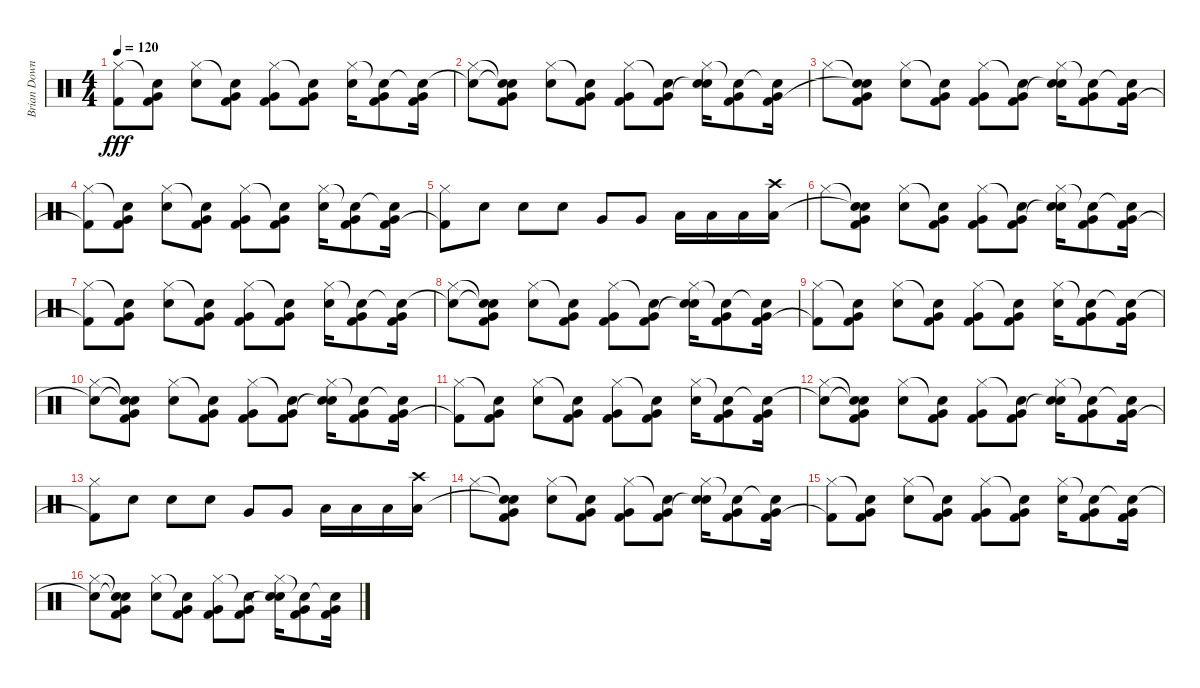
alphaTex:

\track ("Brian Downey" "Brian Down") {instrument percussion}
\staff {score}
\articulation defaults
\ts (4 4)
\tempo 120
\clef neutral
\ks c
("Hi-Hat (closed)" "Kick (hit) 2"{t}).8{dy fff} ("Snare (hit)"{t} "Kick (hit) 2" "Very Low Tom (hit)").8 ("Hi-Hat (closed)" "Electric Snare (hit)").8 ("Snare (hit)"{t} "Kick (hit) 2" "Very Low Tom (hit)").8 ("Hi-Hat (closed)" "Kick (hit) 2" "Very Low Tom (hit)").8 ("Snare (hit)"{t} "Kick (hit) 2" "Very Low Tom (hit)").8 ("Hi-Hat (closed)" "Electric Snare (hit)").16 ("Snare (hit)"{t} "Kick (hit) 2" "Very Low Tom (hit)").8 ("Snare (hit)"{t} "Kick (hit) 2" "Very Low Tom (hit)").16 |
("Snare (hit)"{t} "Hi-Hat (closed)").8 ("Snare (hit)"{t} "Snare (hit)"{t} "Kick (hit) 2" "Very Low Tom (hit)").8 ("Hi-Hat (closed)" "Electric Snare (hit)").8 ("Snare (hit)"{t} "Kick (hit) 2" "Very Low Tom (hit)").8 ("Hi-Hat (closed)" "Kick (hit) 2" "Very Low Tom (hit)").8 ("Snare (hit)"{t} "Kick (hit) 2" "Very Low Tom (hit)").8 ("Hi-Hat (closed)" "Electric Snare (hit)" "Snare (hit)"{t}).16 ("Snare (hit)"{t} "Kick (hit) 2" "Very Low Tom (hit)").8 ("Snare (hit)"{t} "Kick (hit) 2" "Very Low Tom (hit)").16 |
"Hi-Hat (closed)".8 ("Snare (hit)"{t} "Snare (hit)"{t} "Kick (hit) 2" "Very Low Tom (hit)").8 ("Hi-Hat (closed)" "Electric Snare (hit)").8 ("Snare (hit)"{t} "Kick (hit) 2" "Very Low Tom (hit)").8 ("Hi-Hat (closed)" "Kick (hit) 2" "Very Low Tom (hit)").8 ("Snare (hit)"{t} "Kick (hit) 2" "Very Low Tom (hit)").8 ("Hi-Hat (closed)" "Electric Snare (hit)" "Snare (hit)"{t}).16 ("Snare (hit)"{t} "Kick (hit) 2" "Very Low Tom (hit)").8 ("Snare (hit)"{t} "Kick (hit) 2" "Very Low Tom (hit)").16 |
("Hi-Hat (closed)" "Kick (hit) 2"{t}).8 ("Snare (hit)"{t} "Kick (hit) 2" "Very Low Tom (hit)").8 ("Hi-Hat (closed)" "Electric Snare (hit)").8 ("Snare (hit)"{t} "Kick (hit) 2" "Very Low Tom (hit)").8 ("Hi-Hat (closed)" "Kick (hit) 2" "Very Low Tom (hit)").8 ("Snare (hit)"{t} "Kick (hit) 2" "Very Low Tom (hit)").8 ("Hi-Hat (closed)" "Electric Snare (hit)").16 ("Snare (hit)"{t} "Kick (hit) 2" "Very Low Tom (hit)").8 ("Snare (hit)"{t} "Kick (hit) 2" "Very Low Tom (hit)").16 |
("Hi-Hat (closed)" "Kick (hit) 2"{t}).8 "Electric Snare (hit)".8 "Electric Snare (hit)".8 "Electric Snare (hit)".8 "Very Low Tom (hit)".8 "Very Low Tom (hit)".8 "Low Floor Tom (hit)".16 "Low Floor Tom (hit)".16 "Low Floor Tom (hit)".16 ("Crash high (hit)" "Low Floor Tom (hit)").16 |
"Hi-Hat (closed)".8 ("Snare (hit)"{t} "Snare (hit)"{t} "Kick (hit) 2" "Very Low Tom (hit)").8 ("Hi-Hat (closed)" "Electric Snare (hit)").8 ("Snare (hit)"{t} "Kick (hit) 2" "Very Low Tom (hit)").8 ("Hi-Hat (closed)" "Kick (hit) 2" "Very Low Tom (hit)").8 ("Snare (hit)"{t} "Kick (hit) 2" "Very Low Tom (hit)").8 ("Hi-Hat (closed)" "Electric Snare (hit)" "Snare (hit)"{t}).16 ("Snare (hit)"{t} "Kick (hit) 2" "Very Low Tom (hit)").8 ("Snare (hit)"{t} "Kick (hit) 2" "Very Low Tom (hit)").16 |
("Hi-Hat (closed)" "Kick (hit) 2"{t}).8 ("Snare (hit)"{t} "Kick (hit) 2" "Very Low Tom (hit)").8 ("Hi-Hat (closed)" "Electric Snare (hit)").8 ("Snare (hit)"{t} "Kick (hit) 2" "Very Low Tom (hit)").8 ("Hi-Hat (closed)" "Kick (hit) 2" "Very Low Tom (hit)").8 ("Snare (hit)"{t} "Kick (hit) 2" "Very Low Tom (hit)").8 ("Hi-Hat (closed)" "Electric Snare (hit)").16 ("Snare (hit)"{t} "Kick (hit) 2" "Very Low Tom (hit)").8 ("Snare (hit)"{t} "Kick (hit) 2" "Very Low Tom (hit)").16 |
("Snare (hit)"{t} "Hi-Hat (closed)").8 ("Snare (hit)"{t} "Snare (hit)"{t} "Kick (hit) 2" "Very Low Tom (hit)").8 ("Hi-Hat (closed)" "Electric Snare (hit)").8 ("Snare (hit)"{t} "Kick (hit) 2" "Very Low Tom (hit)").8 ("Hi-Hat (closed)" "Kick (hit) 2" "Very Low Tom (hit)").8 ("Snare (hit)"{t} "Kick (hit) 2" "Very Low Tom (hit)").8 ("Hi-Hat (closed)" "Electric Snare (hit)" "Snare (hit)"{t}).16 ("Snare (hit)"{t} "Kick (hit) 2" "Very Low Tom (hit)").8 ("Snare (hit)"{t} "Kick (hit) 2" "Very Low Tom (hit)").16 |
("Hi-Hat (closed)" "Kick (hit) 2"{t}).8 ("Snare (hit)"{t} "Kick (hit) 2" "Very Low Tom (hit)").8 ("Hi-Hat (closed)" "Electric Snare (hit)").8 ("Snare (hit)"{t} "Kick (hit) 2" "Very Low Tom (hit)").8 ("Hi-Hat (closed)" "Kick (hit) 2" "Very Low Tom (hit)").8 ("Snare (hit)"{t} "Kick (hit) 2" "Very Low Tom (hit)").8 ("Hi-Hat (closed)" "Electric Snare (hit)").16 ("Snare (hit)"{t} "Kick (hit) 2" "Very Low Tom (hit)").8 ("Snare (hit)"{t} "Kick (hit) 2" "Very Low Tom (hit)").16 |
("Snare (hit)"{t} "Hi-Hat (closed)").8 ("Snare (hit)"{t} "Snare (hit)"{t} "Kick (hit) 2" "Very Low Tom (hit)").8 ("Hi-Hat (closed)" "Electric Snare (hit)").8 ("Snare (hit)"{t} "Kick (hit) 2" "Very Low Tom (hit)").8 ("Hi-Hat (closed)" "Kick (hit) 2" "Very Low Tom (hit)").8 ("Snare (hit)"{t} "Kick (hit) 2" "Very Low Tom (hit)").8 ("Hi-Hat (closed)" "Electric Snare (hit)" "Snare (hit)"{t}).16 ("Snare (hit)"{t} "Kick (hit) 2" "Very Low Tom (hit)").8 ("Snare (hit)"{t} "Kick (hit) 2" "Very Low Tom (hit)").16 |
("Hi-Hat (closed)" "Kick (hit) 2"{t}).8 ("Snare (hit)"{t} "Kick (hit) 2" "Very Low Tom (hit)").8 ("Hi-Hat (closed)" "Electric Snare (hit)").8 ("Snare (hit)"{t} "Kick (hit) 2" "Very Low Tom (hit)").8 ("Hi-Hat (closed)" "Kick (hit) 2" "Very Low Tom (hit)").8 ("Snare (hit)"{t} "Kick (hit) 2" "Very Low Tom (hit)").8 ("Hi-Hat (closed)" "Electric Snare (hit)").16 ("Snare (hit)"{t} "Kick (hit) 2" "Very Low Tom (hit)").8 ("Snare (hit)"{t} "Kick (hit) 2" "Very Low Tom (hit)").16 |
("Snare (hit)"{t} "Hi-Hat (closed)").8 ("Snare (hit)"{t} "Snare (hit)"{t} "Kick (hit) 2" "Very Low Tom (hit)").8 ("Hi-Hat (closed)" "Electric Snare (hit)").8 ("Snare (hit)"{t} "Kick (hit) 2" "Very Low Tom (hit)").8 ("Hi-Hat (closed)" "Kick (hit) 2" "Very Low Tom (hit)").8 ("Snare (hit)"{t} "Kick (hit) 2" "Very Low Tom (hit)").8 ("Hi-Hat (closed)" "Electric Snare (hit)" "Snare (hit)"{t}).16 ("Snare (hit)"{t} "Kick (hit) 2" "Very Low Tom (hit)").8 ("Snare (hit)"{t} "Kick (hit) 2" "Very Low Tom (hit)").16 |
("Hi-Hat (closed)" "Kick (hit) 2"{t}).8 "Electric Snare (hit)".8 "Electric Snare (hit)".8 "Electric Snare (hit)".8 "Very Low Tom (hit)".8 "Very Low Tom (hit)".8 "Low Floor Tom (hit)".16 "Low Floor Tom (hit)".16 "Low Floor Tom (hit)".16 ("Crash high (hit)" "Low Floor Tom (hit)").16 |
"Hi-Hat (closed)".8 ("Snare (hit)"{t} "Snare (hit)"{t} "Kick (hit) 2" "Very Low Tom (hit)").8 ("Hi-Hat (closed)" "Electric Snare (hit)").8 ("Snare (hit)"{t} "Kick (hit) 2" "Very Low Tom (hit)").8 ("Hi-Hat (closed)" "Kick (hit) 2" "Very Low Tom (hit)").8 ("Snare (hit)"{t} "Kick (hit) 2" "Very Low Tom (hit)").8 ("Hi-Hat (closed)" "Electric Snare (hit)" "Snare (hit)"{t}).16 ("Snare (hit)"{t} "Kick (hit) 2" "Very Low Tom (hit)").8 ("Snare (hit)"{t} "Kick (hit) 2" "Very Low Tom (hit)").16 |
("Hi-Hat (closed)" "Kick (hit) 2"{t}).8 ("Snare (hit)"{t} "Kick (hit) 2" "Very Low Tom (hit)").8 ("Hi-Hat (closed)" "Electric Snare (hit)").8 ("Snare (hit)"{t} "Kick (hit) 2" "Very Low Tom (hit)").8 ("Hi-Hat (closed)" "Kick (hit) 2" "Very Low Tom (hit)").8 ("Snare (hit)"{t} "Kick (hit) 2" "Very Low Tom (hit)").8 ("Hi-Hat (closed)" "Electric Snare (hit)").16 ("Snare (hit)"{t} "Kick (hit) 2" "Very Low Tom (hit)").8 ("Snare (hit)"{t} "Kick (hit) 2" "Very Low Tom (hit)").16 |
("Snare (hit)"{t} "Hi-Hat (closed)").8 ("Snare (hit)"{t} "Snare (hit)"{t} "Kick (hit) 2" "Very Low Tom (hit)").8 ("Hi-Hat (closed)" "Electric Snare (hit)").8 ("Snare (hit)"{t} "Kick (hit) 2" "Very Low Tom (hit)").8 ("Hi-Hat (closed)" "Kick (hit) 2" "Very Low Tom (hit)").8 ("Snare (hit)"{t} "Kick (hit) 2" "Very Low Tom (hit)").8 ("Hi-Hat (closed)" "Electric Snare (hit)" "Snare (hit)"{t}).16 ("Snare (hit)"{t} "Kick (hit) 2" "Very Low Tom (hit)").8 ("Snare (hit)"{t} "Kick (hit) 2" "Very Low Tom (hit)").16
